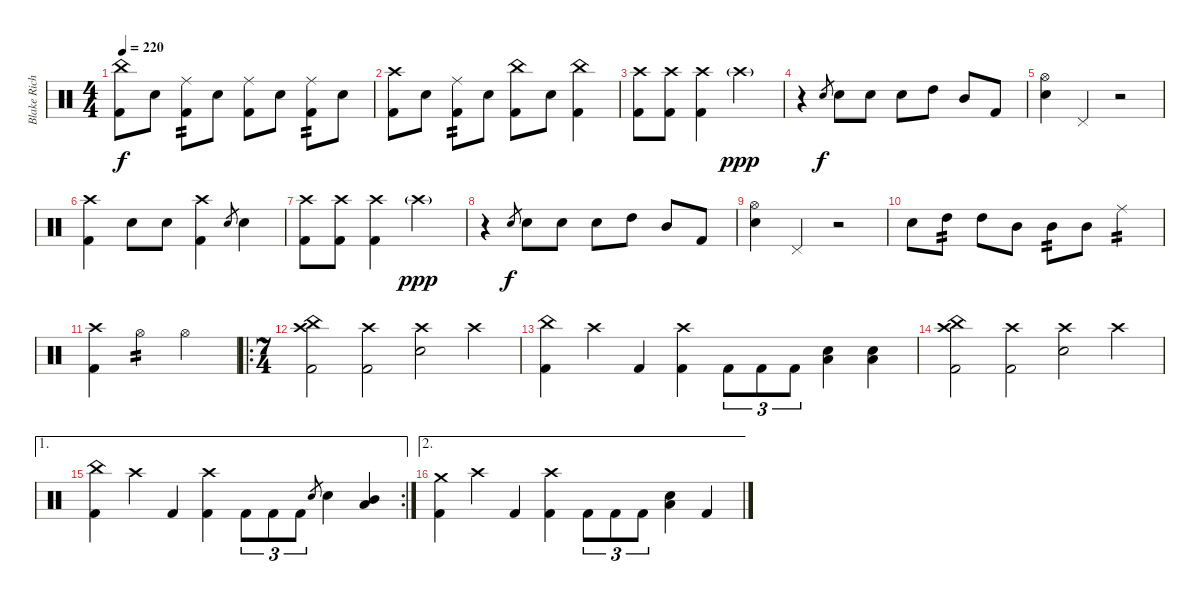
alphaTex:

\track ("Blake Richardson" "Blake Rich") {instrument percussion}
\staff {score}
\articulation defaults
\ts (4 4)
\tempo 220
\clef neutral
\ks c
("China (hit)" "Kick (hit) 2").8{dy f} "Electric Snare (hit)".8 ("Ride (middle)" "Kick (hit) 2").8{tp 2} "Electric Snare (hit)".8 ("Ride (middle)" "Kick (hit) 2").8 "Electric Snare (hit)".8 ("Ride (middle)" "Kick (hit) 2").8{tp 2} "Electric Snare (hit)".8 |
("Crash high (hit)" "Kick (hit) 2").8 "Electric Snare (hit)".8 ("Ride (middle)" "Kick (hit) 2").8{tp 2} "Electric Snare (hit)".8 ("China (hit)" "Kick (hit) 2").8 "Electric Snare (hit)".8 ("China (hit)" "Kick (hit) 2").4 |
("Crash high (hit)" "Kick (hit) 2").8 ("Crash high (hit)" "Kick (hit) 2").8 ("Crash high (hit)" "Kick (hit) 2").4 "Crash high (hit)"{g}.2{dy ppp volume 0} |
r.4{volume 13} "Electric Snare (hit)".8{gr dy f} "Electric Snare (hit)".8 "Electric Snare (hit)".8 "Electric Snare (hit)".8 "High Tom (hit)".8 "Mid Tom (hit)".8 "Kick (hit) 2".8 |
("Hi-Hat (open)" "Electric Snare (hit)").4 "Pedal Hi-Hat (hit)".4 r.2 |
("Crash high (hit)" "Kick (hit) 2").4 "Electric Snare (hit)".8 "Electric Snare (hit)".8 ("Crash high (hit)" "Kick (hit) 2").4 "Electric Snare (hit)".8{gr} "Electric Snare (hit)".4 |
("Crash high (hit)" "Kick (hit) 2").8 ("Crash high (hit)" "Kick (hit) 2").8 ("Crash high (hit)" "Kick (hit) 2").4 "Crash high (hit)"{g}.2{dy ppp volume 0} |
r.4{volume 13} "Electric Snare (hit)".8{gr dy f} "Electric Snare (hit)".8 "Electric Snare (hit)".8 "Electric Snare (hit)".8 "High Tom (hit)".8 "Mid Tom (hit)".8 "Kick (hit) 2".8 |
("Hi-Hat (open)" "Electric Snare (hit)").4 "Pedal Hi-Hat (hit)".4 r.2 |
"Electric Snare (hit)".8 "High Tom (hit)".8{tp 2} "High Tom (hit)".8 "Mid Tom (hit)".8 "Mid Tom (hit)".8{tp 2} "Mid Tom (hit)".8 "Ride (middle)".4{tp 2} |
("Crash high (hit)" "Kick (hit) 2").4 "Hi-Hat (open)".4{tp 2} "Hi-Hat (open)".2 |
\ro
\ts (7 4)
("China (hit)" "Crash high (hit)" "Kick (hit) 2").2 ("Crash high (hit)" "Kick (hit) 2").2 ("Crash high (hit)" "Electric Snare (hit)").2 "Crash high (hit)".4 |
("China (hit)" "Kick (hit) 2").4 "Crash high (hit)".4 "Kick (hit) 2".4 ("Crash high (hit)" "Kick (hit) 2").4{beam merge} "Kick (hit) 2".8{tu (3 2)} "Kick (hit) 2".8{tu (3 2)} "Kick (hit) 2".8{tu (3 2)} ("Electric Snare (hit)" "Low Tom (hit)").4 ("Electric Snare (hit)" "Low Tom (hit)").4 |
("China (hit)" "Crash high (hit)" "Kick (hit) 2").2 ("Crash high (hit)" "Kick (hit) 2").2 ("Crash high (hit)" "Electric Snare (hit)").2 "Crash high (hit)".4 |
\ae 1
\rc 2
("China (hit)" "Kick (hit) 2").4 "Crash high (hit)".4 "Kick (hit) 2".4 ("Crash high (hit)" "Kick (hit) 2").4{beam merge} "Kick (hit) 2".8{tu (3 2)} "Kick (hit) 2".8{tu (3 2)} "Kick (hit) 2".8{tu (3 2)} "Electric Snare (hit)".8{gr} "Electric Snare (hit)".4 ("Mid Tom (hit)" "Low Tom (hit)").4 |
\ae 2
("Crash medium (hit)" "Kick (hit) 2").4 "Crash high (hit)".4 "Kick (hit) 2".4 ("Crash high (hit)" "Kick (hit) 2").4{beam merge} "Kick (hit) 2".8{tu (3 2)} "Kick (hit) 2".8{tu (3 2)} "Kick (hit) 2".8{tu (3 2)} ("Electric Snare (hit)" "Low Tom (hit)").4 "Kick (hit) 2".4
